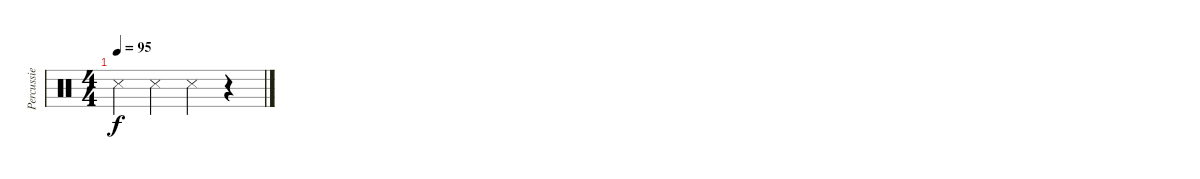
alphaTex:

\track ("Percussie" "Percussie") {instrument percussion}
\staff {score}
\articulation defaults
\ts (4 4)
\tempo 95
\clef neutral
\ks c "Snare (side stick) 3".4{dy f} "Snare (side stick) 3".4 "Snare (side stick) 3".4
r.4
